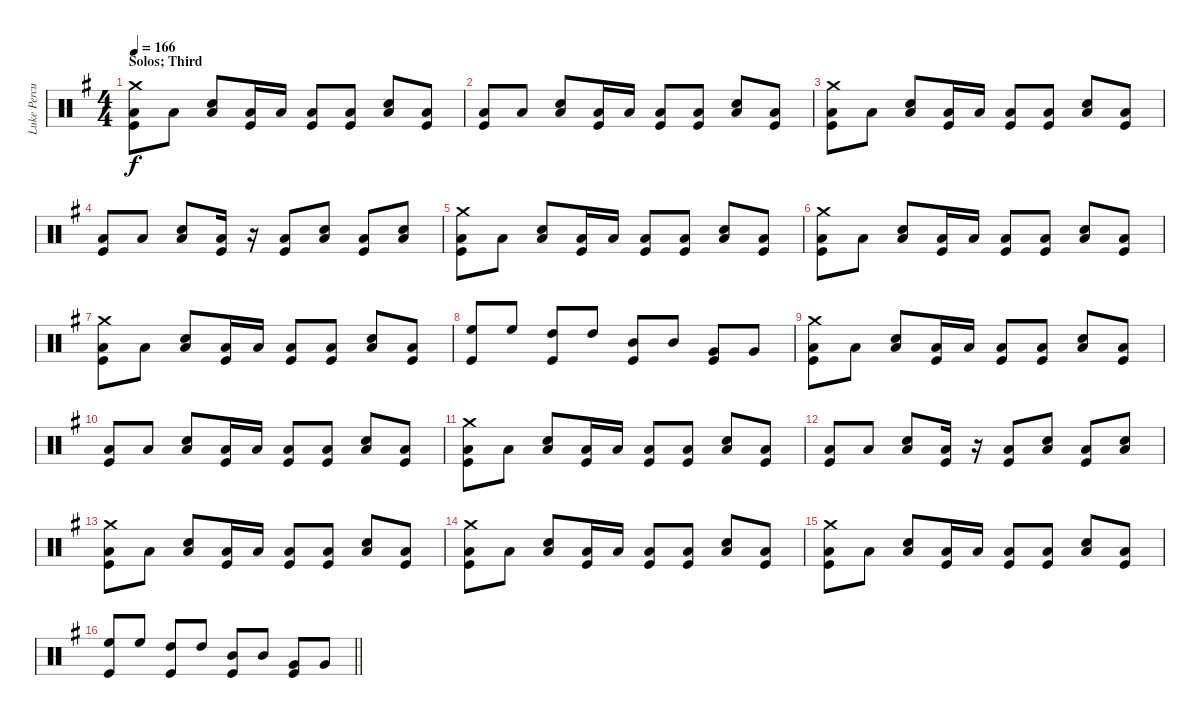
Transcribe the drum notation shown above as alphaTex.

\track ("Luke Percussion" "Luke Percu") {instrument percussion}
\staff {score}
\articulation defaults
\ts (4 4)
\section ("" "Solos; Third")
\tempo 166
\clef neutral
\ks eminor
("Crash medium (hit)" "Low Floor Tom (hit)" "Kick (hit)").8{dy f} "Low Floor Tom (hit)".8 ("Snare (hit) 2" "Low Floor Tom (hit)").8 ("Low Floor Tom (hit)" "Kick (hit)").16 "Low Floor Tom (hit)".16 ("Low Floor Tom (hit)" "Kick (hit)").8 ("Low Floor Tom (hit)" "Kick (hit)").8 ("Snare (hit) 2" "Low Floor Tom (hit)").8 ("Low Floor Tom (hit)" "Kick (hit)").8 |
("Low Floor Tom (hit)" "Kick (hit)").8 "Low Floor Tom (hit)".8 ("Snare (hit) 2" "Low Floor Tom (hit)").8 ("Low Floor Tom (hit)" "Kick (hit)").16 "Low Floor Tom (hit)".16 ("Low Floor Tom (hit)" "Kick (hit)").8 ("Low Floor Tom (hit)" "Kick (hit)").8 ("Snare (hit) 2" "Low Floor Tom (hit)").8 ("Low Floor Tom (hit)" "Kick (hit)").8 |
("Crash medium (hit)" "Low Floor Tom (hit)" "Kick (hit)").8 "Low Floor Tom (hit)".8 ("Snare (hit) 2" "Low Floor Tom (hit)").8 ("Low Floor Tom (hit)" "Kick (hit)").16 "Low Floor Tom (hit)".16 ("Low Floor Tom (hit)" "Kick (hit)").8 ("Low Floor Tom (hit)" "Kick (hit)").8 ("Snare (hit) 2" "Low Floor Tom (hit)").8 ("Low Floor Tom (hit)" "Kick (hit)").8 |
("Low Floor Tom (hit)" "Kick (hit)").8 "Low Floor Tom (hit)".8 ("Snare (hit) 2" "Low Floor Tom (hit)").8 ("Low Floor Tom (hit)" "Kick (hit)").16 r.16 ("Low Floor Tom (hit)" "Kick (hit)").8 ("Snare (hit) 2" "Low Floor Tom (hit)").8 ("Low Floor Tom (hit)" "Kick (hit)").8 ("Snare (hit) 2" "Low Floor Tom (hit)").8 |
("Crash medium (hit)" "Low Floor Tom (hit)" "Kick (hit)").8 "Low Floor Tom (hit)".8 ("Snare (hit) 2" "Low Floor Tom (hit)").8 ("Low Floor Tom (hit)" "Kick (hit)").16 "Low Floor Tom (hit)".16 ("Low Floor Tom (hit)" "Kick (hit)").8 ("Low Floor Tom (hit)" "Kick (hit)").8 ("Snare (hit) 2" "Low Floor Tom (hit)").8 ("Low Floor Tom (hit)" "Kick (hit)").8 |
("Crash medium (hit)" "Low Floor Tom (hit)" "Kick (hit)").8 "Low Floor Tom (hit)".8 ("Snare (hit) 2" "Low Floor Tom (hit)").8 ("Low Floor Tom (hit)" "Kick (hit)").16 "Low Floor Tom (hit)".16 ("Low Floor Tom (hit)" "Kick (hit)").8 ("Low Floor Tom (hit)" "Kick (hit)").8 ("Snare (hit) 2" "Low Floor Tom (hit)").8 ("Low Floor Tom (hit)" "Kick (hit)").8 |
("Crash medium (hit)" "Low Floor Tom (hit)" "Kick (hit)").8 "Low Floor Tom (hit)".8 ("Snare (hit) 2" "Low Floor Tom (hit)").8 ("Low Floor Tom (hit)" "Kick (hit)").16 "Low Floor Tom (hit)".16 ("Low Floor Tom (hit)" "Kick (hit)").8 ("Low Floor Tom (hit)" "Kick (hit)").8 ("Snare (hit) 2" "Low Floor Tom (hit)").8 ("Low Floor Tom (hit)" "Kick (hit)").8 |
("High Floor Tom (hit)" "Kick (hit)").8 "High Floor Tom (hit)".8 ("High Tom (hit)" "Kick (hit)").8 "High Tom (hit)".8 ("Mid Tom (hit)" "Kick (hit)").8 "Mid Tom (hit)".8 ("Very Low Tom (hit)" "Kick (hit)").8 "Very Low Tom (hit)".8 |
("Crash medium (hit)" "Low Floor Tom (hit)" "Kick (hit)").8 "Low Floor Tom (hit)".8 ("Snare (hit) 2" "Low Floor Tom (hit)").8 ("Low Floor Tom (hit)" "Kick (hit)").16 "Low Floor Tom (hit)".16 ("Low Floor Tom (hit)" "Kick (hit)").8 ("Low Floor Tom (hit)" "Kick (hit)").8 ("Snare (hit) 2" "Low Floor Tom (hit)").8 ("Low Floor Tom (hit)" "Kick (hit)").8 |
("Low Floor Tom (hit)" "Kick (hit)").8 "Low Floor Tom (hit)".8 ("Snare (hit) 2" "Low Floor Tom (hit)").8 ("Low Floor Tom (hit)" "Kick (hit)").16 "Low Floor Tom (hit)".16 ("Low Floor Tom (hit)" "Kick (hit)").8 ("Low Floor Tom (hit)" "Kick (hit)").8 ("Snare (hit) 2" "Low Floor Tom (hit)").8 ("Low Floor Tom (hit)" "Kick (hit)").8 |
("Crash medium (hit)" "Low Floor Tom (hit)" "Kick (hit)").8 "Low Floor Tom (hit)".8 ("Snare (hit) 2" "Low Floor Tom (hit)").8 ("Low Floor Tom (hit)" "Kick (hit)").16 "Low Floor Tom (hit)".16 ("Low Floor Tom (hit)" "Kick (hit)").8 ("Low Floor Tom (hit)" "Kick (hit)").8 ("Snare (hit) 2" "Low Floor Tom (hit)").8 ("Low Floor Tom (hit)" "Kick (hit)").8 |
("Low Floor Tom (hit)" "Kick (hit)").8 "Low Floor Tom (hit)".8 ("Snare (hit) 2" "Low Floor Tom (hit)").8 ("Low Floor Tom (hit)" "Kick (hit)").16 r.16 ("Low Floor Tom (hit)" "Kick (hit)").8 ("Snare (hit) 2" "Low Floor Tom (hit)").8 ("Low Floor Tom (hit)" "Kick (hit)").8 ("Snare (hit) 2" "Low Floor Tom (hit)").8 |
("Crash medium (hit)" "Low Floor Tom (hit)" "Kick (hit)").8 "Low Floor Tom (hit)".8 ("Snare (hit) 2" "Low Floor Tom (hit)").8 ("Low Floor Tom (hit)" "Kick (hit)").16 "Low Floor Tom (hit)".16 ("Low Floor Tom (hit)" "Kick (hit)").8 ("Low Floor Tom (hit)" "Kick (hit)").8 ("Snare (hit) 2" "Low Floor Tom (hit)").8 ("Low Floor Tom (hit)" "Kick (hit)").8 |
("Crash medium (hit)" "Low Floor Tom (hit)" "Kick (hit)").8 "Low Floor Tom (hit)".8 ("Snare (hit) 2" "Low Floor Tom (hit)").8 ("Low Floor Tom (hit)" "Kick (hit)").16 "Low Floor Tom (hit)".16 ("Low Floor Tom (hit)" "Kick (hit)").8 ("Low Floor Tom (hit)" "Kick (hit)").8 ("Snare (hit) 2" "Low Floor Tom (hit)").8 ("Low Floor Tom (hit)" "Kick (hit)").8 |
("Crash medium (hit)" "Low Floor Tom (hit)" "Kick (hit)").8 "Low Floor Tom (hit)".8 ("Snare (hit) 2" "Low Floor Tom (hit)").8 ("Low Floor Tom (hit)" "Kick (hit)").16 "Low Floor Tom (hit)".16 ("Low Floor Tom (hit)" "Kick (hit)").8 ("Low Floor Tom (hit)" "Kick (hit)").8 ("Snare (hit) 2" "Low Floor Tom (hit)").8 ("Low Floor Tom (hit)" "Kick (hit)").8 |
\barLineRight lightlight
("High Floor Tom (hit)" "Kick (hit)").8 "High Floor Tom (hit)".8 ("High Tom (hit)" "Kick (hit)").8 "High Tom (hit)".8 ("Mid Tom (hit)" "Kick (hit)").8 "Mid Tom (hit)".8 ("Very Low Tom (hit)" "Kick (hit)").8 "Very Low Tom (hit)".8
